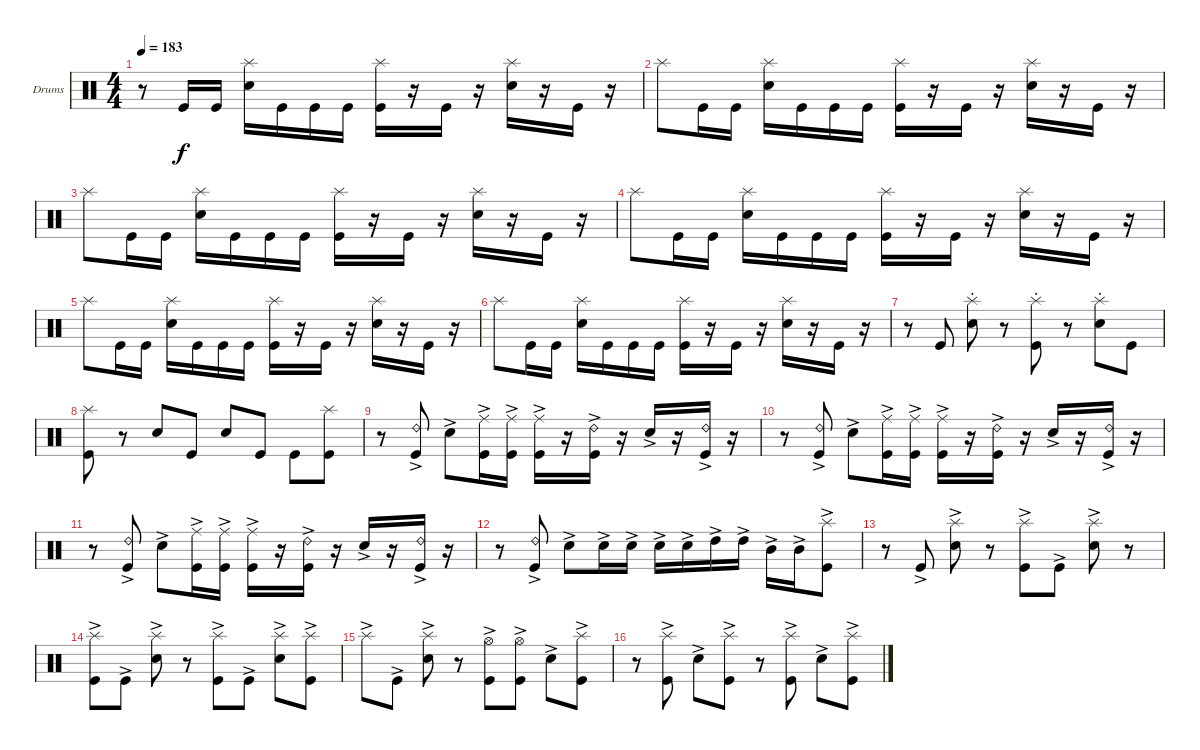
\bracketExtendMode groupsimilarinstruments
\firstSystemTrackNameOrientation horizontal
\otherSystemsTrackNameOrientation horizontal
\track ("Drumkit" "Drums") {instrument percussion}
\staff {score}
\articulation defaults
\ts (4 4)
\tempo 183
\clef neutral
\ks c
r.8{dy f} "Kick (hit)".16 "Kick (hit)".16 ("Snare (hit) 2" "Splash (hit)").16 "Kick (hit)".16 "Kick (hit)".16 "Kick (hit)".16 ("Kick (hit)" "Splash (hit)").16 r.16 "Kick (hit)".16 r.16 ("Snare (hit) 2" "Splash (hit)").16 r.16 "Kick (hit)".16 r.16 |
"Splash (hit)".8 "Kick (hit)".16 "Kick (hit)".16 ("Snare (hit) 2" "Splash (hit)").16 "Kick (hit)".16 "Kick (hit)".16 "Kick (hit)".16 ("Kick (hit)" "Splash (hit)").16 r.16 "Kick (hit)".16 r.16 ("Snare (hit) 2" "Splash (hit)").16 r.16 "Kick (hit)".16 r.16 |
"Splash (hit)".8 "Kick (hit)".16 "Kick (hit)".16 ("Snare (hit) 2" "Splash (hit)").16 "Kick (hit)".16 "Kick (hit)".16 "Kick (hit)".16 ("Kick (hit)" "Splash (hit)").16 r.16 "Kick (hit)".16 r.16 ("Snare (hit) 2" "Splash (hit)").16 r.16 "Kick (hit)".16 r.16 |
"Splash (hit)".8 "Kick (hit)".16 "Kick (hit)".16 ("Snare (hit) 2" "Splash (hit)").16 "Kick (hit)".16 "Kick (hit)".16 "Kick (hit)".16 ("Kick (hit)" "Splash (hit)").16 r.16 "Kick (hit)".16 r.16 ("Snare (hit) 2" "Splash (hit)").16 r.16 "Kick (hit)".16 r.16 |
"Splash (hit)".8 "Kick (hit)".16 "Kick (hit)".16 ("Snare (hit) 2" "Splash (hit)").16 "Kick (hit)".16 "Kick (hit)".16 "Kick (hit)".16 ("Kick (hit)" "Splash (hit)").16 r.16 "Kick (hit)".16 r.16 ("Snare (hit) 2" "Splash (hit)").16 r.16 "Kick (hit)".16 r.16 |
"Splash (hit)".8 "Kick (hit)".16 "Kick (hit)".16 ("Snare (hit) 2" "Splash (hit)").16 "Kick (hit)".16 "Kick (hit)".16 "Kick (hit)".16 ("Kick (hit)" "Splash (hit)").16 r.16 "Kick (hit)".16 r.16 ("Snare (hit) 2" "Splash (hit)").16 r.16 "Kick (hit)".16 r.16 |
r.8 "Kick (hit)".8 ("Snare (hit) 2" "Splash (hit)"{st}).8 r.8 ("Kick (hit)" "Splash (hit)"{st}).8 r.8 ("Snare (hit) 2" "Splash (hit)"{st}).8 "Kick (hit)".8 |
("Kick (hit)" "Splash (hit)").8 r.8 "Snare (hit) 2".8 "Kick (hit)".8 "Snare (hit) 2".8 "Kick (hit)".8 "Kick (hit)".8 ("Kick (hit)" "Splash (hit)").8 |
r.8 ("Kick (hit)"{ac} "Ride (bell) 2"{ac}).8 "Snare (hit) 2"{ac}.8 ("Kick (hit)"{ac} "Ride (middle)"{ac}).16 ("Kick (hit)"{ac} "Ride (middle)"{ac}).16 ("Kick (hit)"{ac} "Ride (middle)"{ac}).16 r.16 ("Kick (hit)"{ac} "Ride (bell) 2"{ac}).16 r.16 "Snare (hit) 2"{ac}.16 r.16 ("Kick (hit)"{ac} "Ride (bell) 2"{ac}).16 r.16 |
r.8 ("Kick (hit)"{ac} "Ride (bell) 2"{ac}).8 "Snare (hit) 2"{ac}.8 ("Kick (hit)"{ac} "Ride (middle)"{ac}).16 ("Kick (hit)"{ac} "Ride (middle)"{ac}).16 ("Kick (hit)"{ac} "Ride (middle)"{ac}).16 r.16 ("Kick (hit)"{ac} "Ride (bell) 2"{ac}).16 r.16 "Snare (hit) 2"{ac}.16 r.16 ("Kick (hit)"{ac} "Ride (bell) 2"{ac}).16 r.16 |
r.8 ("Kick (hit)"{ac} "Ride (bell) 2"{ac}).8 "Snare (hit) 2"{ac}.8 ("Kick (hit)"{ac} "Ride (middle)"{ac}).16 ("Kick (hit)"{ac} "Ride (middle)"{ac}).16 ("Kick (hit)"{ac} "Ride (middle)"{ac}).16 r.16 ("Kick (hit)"{ac} "Ride (bell) 2"{ac}).16 r.16 "Snare (hit) 2"{ac}.16 r.16 ("Kick (hit)"{ac} "Ride (bell) 2"{ac}).16 r.16 |
r.8 ("Kick (hit)"{ac} "Ride (bell) 2"{ac}).8 "Snare (hit) 2"{ac}.8 "Snare (hit) 2"{ac}.16 "Snare (hit) 2"{ac}.16 "Snare (hit) 2"{ac}.16 "Snare (hit) 2"{ac}.16 "High Tom (hit)"{ac}.16 "High Tom (hit)"{ac}.16 "Mid Tom (hit)"{ac}.16 "Mid Tom (hit)"{ac}.16 ("Kick (hit)"{ac} "Splash (hit)"{ac}).8 |
r.8 "Kick (hit)"{ac}.8 ("Snare (hit) 2"{ac} "Splash (hit)"{ac}).8 r.8 ("Kick (hit)"{ac} "Splash (hit)"{ac}).8 "Kick (hit)"{ac}.8 ("Snare (hit) 2"{ac} "Splash (hit)"{ac}).8 r.8 |
("Kick (hit)"{ac} "Splash (hit)"{ac}).8 "Kick (hit)"{ac}.8 ("Snare (hit) 2"{ac} "Splash (hit)"{ac}).8 r.8 ("Kick (hit)"{ac} "Splash (hit)"{ac}).8 "Kick (hit)"{ac}.8 ("Snare (hit) 2"{ac} "Splash (hit)"{ac}).8 ("Kick (hit)"{ac} "Splash (hit)"{ac}).8 |
"Splash (hit)"{ac}.8 "Kick (hit)"{ac}.8 ("Snare (hit) 2"{ac} "Splash (hit)"{ac}).8 r.8 ("Kick (hit)"{ac} "Hi-Hat (open)"{ac}).8 ("Kick (hit)"{ac} "Hi-Hat (open)"{ac}).8 "Snare (hit) 2"{ac}.8 ("Kick (hit)"{ac} "Splash (hit)"{ac}).8 |
r.8 ("Kick (hit)"{ac} "Splash (hit)"{ac}).8 "Snare (hit) 2"{ac}.8 ("Kick (hit)"{ac} "Splash (hit)"{ac}).8 r.8 ("Kick (hit)"{ac} "Splash (hit)"{ac}).8 "Snare (hit) 2"{ac}.8 ("Kick (hit)"{ac} "Splash (hit)"{ac}).8
